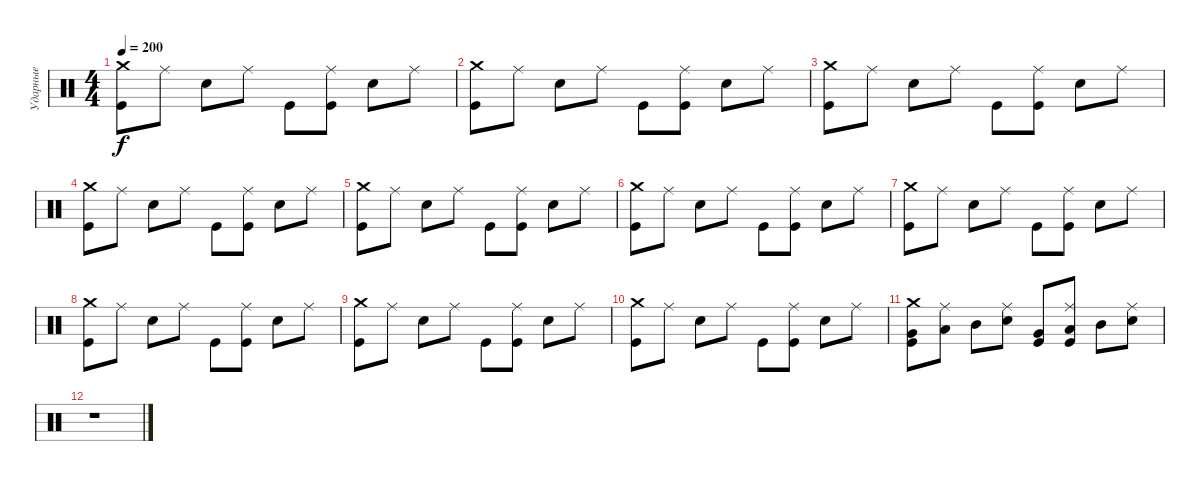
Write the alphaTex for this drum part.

\track ("Ударные" "Ударные") {instrument percussion}
\staff {score}
\articulation defaults
\ts (4 4)
\tempo 200
\clef neutral
\ks c
("Crash medium (hit)" "Kick (hit)").8{dy f} "Ride (middle)".8 "Electric Snare (hit)".8 "Ride (middle)".8 "Kick (hit)".8 ("Ride (middle)" "Kick (hit)").8 "Electric Snare (hit)".8 "Ride (middle)".8 |
("Crash medium (hit)" "Kick (hit)").8 "Ride (middle)".8 "Electric Snare (hit)".8 "Ride (middle)".8 "Kick (hit)".8 ("Ride (middle)" "Kick (hit)").8 "Electric Snare (hit)".8 "Ride (middle)".8 |
("Crash medium (hit)" "Kick (hit)").8 "Ride (middle)".8 "Electric Snare (hit)".8 "Ride (middle)".8 "Kick (hit)".8 ("Ride (middle)" "Kick (hit)").8 "Electric Snare (hit)".8 "Ride (middle)".8 |
("Crash medium (hit)" "Kick (hit)").8 "Ride (middle)".8 "Electric Snare (hit)".8 "Ride (middle)".8 "Kick (hit)".8 ("Ride (middle)" "Kick (hit)").8 "Electric Snare (hit)".8 "Ride (middle)".8 |
("Crash medium (hit)" "Kick (hit)").8 "Ride (middle)".8 "Electric Snare (hit)".8 "Ride (middle)".8 "Kick (hit)".8 ("Ride (middle)" "Kick (hit)").8 "Electric Snare (hit)".8 "Ride (middle)".8 |
("Crash medium (hit)" "Kick (hit)").8 "Ride (middle)".8 "Electric Snare (hit)".8 "Ride (middle)".8 "Kick (hit)".8 ("Ride (middle)" "Kick (hit)").8 "Electric Snare (hit)".8 "Ride (middle)".8 |
("Crash medium (hit)" "Kick (hit)").8 "Ride (middle)".8 "Electric Snare (hit)".8 "Ride (middle)".8 "Kick (hit)".8 ("Ride (middle)" "Kick (hit)").8 "Electric Snare (hit)".8 "Ride (middle)".8 |
("Crash medium (hit)" "Kick (hit)").8 "Ride (middle)".8 "Electric Snare (hit)".8 "Ride (middle)".8 "Kick (hit)".8 ("Ride (middle)" "Kick (hit)").8 "Electric Snare (hit)".8 "Ride (middle)".8 |
("Crash medium (hit)" "Kick (hit)").8 "Ride (middle)".8 "Electric Snare (hit)".8 "Ride (middle)".8 "Kick (hit)".8 ("Ride (middle)" "Kick (hit)").8 "Electric Snare (hit)".8 "Ride (middle)".8 |
("Crash medium (hit)" "Kick (hit)").8 "Ride (middle)".8 "Electric Snare (hit)".8 "Ride (middle)".8 "Kick (hit)".8 ("Ride (middle)" "Kick (hit)").8 "Electric Snare (hit)".8 "Ride (middle)".8 |
("Crash medium (hit)" "Very Low Tom (hit)" "Kick (hit)").8 ("Ride (middle)" "Low Tom (hit)").8 "Mid Tom (hit)".8 ("Ride (middle)" "Electric Snare (hit)").8 ("Very Low Tom (hit)" "Kick (hit)").8 ("Ride (middle)" "Low Tom (hit)" "Kick (hit)").8 "Mid Tom (hit)".8 ("Ride (middle)" "Electric Snare (hit)").8 |
r.1
